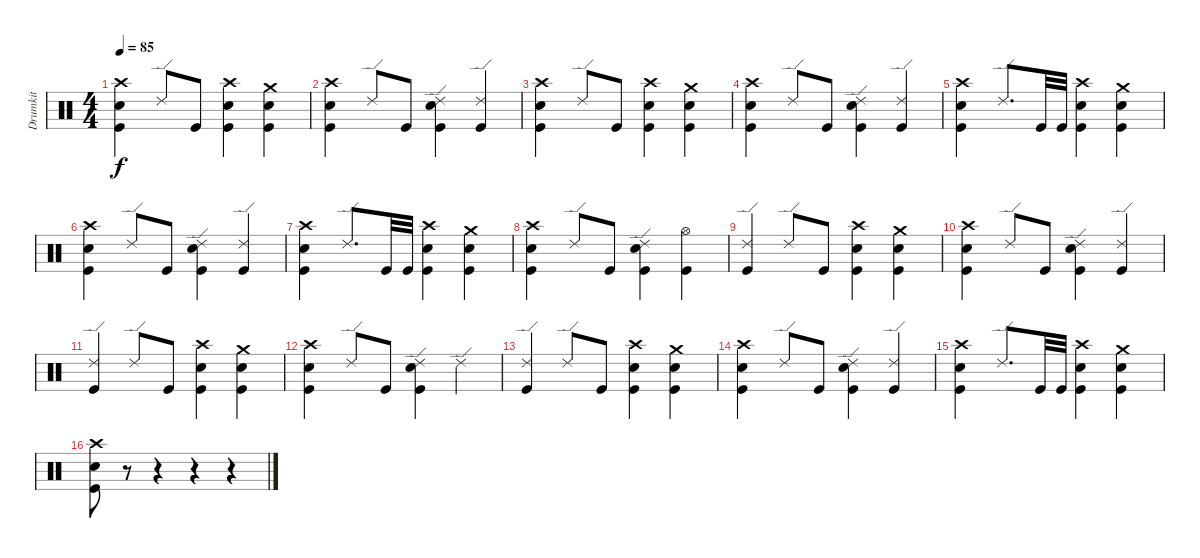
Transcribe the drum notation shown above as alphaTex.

\track ("Drumkit" "Drumkit") {instrument percussion}
\staff {score}
\articulation defaults
\ts (4 4)
\tempo 85
\clef neutral
\ks c
("Crash high (hit)" "Snare (hit) 2" "Kick (hit)").4{dy f} "Ride (edge) 2".8 "Kick (hit)".8 ("Crash high (hit)" "Snare (hit) 2" "Kick (hit)").4 ("Crash medium (hit)" "Snare (hit) 2" "Kick (hit)").4 |
("Crash high (hit)" "Snare (hit) 2" "Kick (hit)").4 "Ride (edge) 2".8 "Kick (hit)".8 ("Ride (edge) 2" "Snare (hit) 2" "Kick (hit)").4 ("Ride (edge) 2" "Kick (hit)").4 |
("Crash high (hit)" "Snare (hit) 2" "Kick (hit)").4 "Ride (edge) 2".8 "Kick (hit)".8 ("Crash high (hit)" "Snare (hit) 2" "Kick (hit)").4 ("Crash medium (hit)" "Snare (hit) 2" "Kick (hit)").4 |
("Crash high (hit)" "Snare (hit) 2" "Kick (hit)").4 "Ride (edge) 2".8 "Kick (hit)".8 ("Ride (edge) 2" "Snare (hit) 2" "Kick (hit)").4 ("Ride (edge) 2" "Kick (hit)").4 |
("Crash high (hit)" "Snare (hit) 2" "Kick (hit)").4 "Ride (edge) 2".8{d} "Kick (hit)".32 "Kick (hit)".32 ("Crash high (hit)" "Snare (hit) 2" "Kick (hit)").4 ("Crash medium (hit)" "Snare (hit) 2" "Kick (hit)").4 |
("Crash high (hit)" "Snare (hit) 2" "Kick (hit)").4 "Ride (edge) 2".8 "Kick (hit)".8 ("Ride (edge) 2" "Snare (hit) 2" "Kick (hit)").4 ("Ride (edge) 2" "Kick (hit)").4 |
("Crash high (hit)" "Snare (hit) 2" "Kick (hit)").4 "Ride (edge) 2".8{d} "Kick (hit)".32 "Kick (hit)".32 ("Crash high (hit)" "Snare (hit) 2" "Kick (hit)").4 ("Crash medium (hit)" "Snare (hit) 2" "Kick (hit)").4 |
("Crash high (hit)" "Snare (hit) 2" "Kick (hit)").4 "Ride (edge) 2".8 "Kick (hit)".8 ("Ride (edge) 2" "Snare (hit) 2" "Kick (hit)").4 ("Hi-Hat (open)" "Kick (hit)").4 |
("Ride (edge) 2" "Kick (hit)").4 "Ride (edge) 2".8 "Kick (hit)".8 ("Crash high (hit)" "Snare (hit) 2" "Kick (hit)").4 ("Crash medium (hit)" "Snare (hit) 2" "Kick (hit)").4 |
("Crash high (hit)" "Snare (hit) 2" "Kick (hit)").4 "Ride (edge) 2".8 "Kick (hit)".8 ("Ride (edge) 2" "Snare (hit) 2" "Kick (hit)").4 ("Ride (edge) 2" "Kick (hit)").4 |
("Ride (edge) 2" "Kick (hit)").4 "Ride (edge) 2".8 "Kick (hit)".8 ("Crash high (hit)" "Snare (hit) 2" "Kick (hit)").4 ("Crash medium (hit)" "Snare (hit) 2" "Kick (hit)").4 |
("Crash high (hit)" "Snare (hit) 2" "Kick (hit)").4 "Ride (edge) 2".8 "Kick (hit)".8 ("Ride (edge) 2" "Snare (hit) 2" "Kick (hit)").4 "Ride (edge) 2".4 |
("Ride (edge) 2" "Kick (hit)").4 "Ride (edge) 2".8 "Kick (hit)".8 ("Crash high (hit)" "Snare (hit) 2" "Kick (hit)").4 ("Crash medium (hit)" "Snare (hit) 2" "Kick (hit)").4 |
("Crash high (hit)" "Snare (hit) 2" "Kick (hit)").4 "Ride (edge) 2".8 "Kick (hit)".8 ("Ride (edge) 2" "Snare (hit) 2" "Kick (hit)").4 ("Ride (edge) 2" "Kick (hit)").4 |
("Crash high (hit)" "Snare (hit) 2" "Kick (hit)").4 "Ride (edge) 2".8{d} "Kick (hit)".32 "Kick (hit)".32 ("Crash high (hit)" "Snare (hit) 2" "Kick (hit)").4 ("Crash medium (hit)" "Snare (hit) 2" "Kick (hit)").4 |
("Crash high (hit)" "Snare (hit) 2" "Kick (hit)").8 r.8 r.4 r.4 r.4
